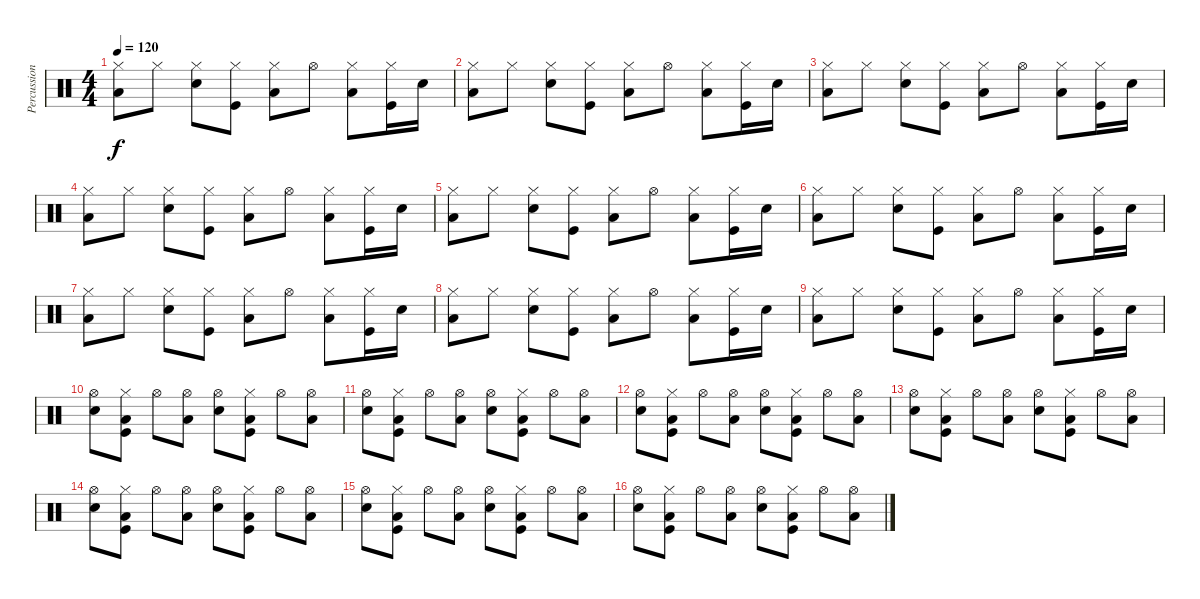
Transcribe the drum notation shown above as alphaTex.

\track ("Percussion" "Percussion") {instrument percussion}
\staff {score}
\articulation defaults
\ts (4 4)
\tempo 120
\clef neutral
\ks c
("Hi-Hat (closed)" "Low Tom (hit)").8{dy f} "Hi-Hat (closed)".8 ("Hi-Hat (closed)" "Snare (hit) 2").8 ("Hi-Hat (closed)" "Kick (hit)").8 ("Hi-Hat (closed)" "Low Tom (hit)").8 "Hi-Hat (open)".8 ("Hi-Hat (closed)" "Low Tom (hit)").8 ("Hi-Hat (closed)" "Kick (hit)").16 "Snare (hit) 2".16 |
("Hi-Hat (closed)" "Low Tom (hit)").8 "Hi-Hat (closed)".8 ("Hi-Hat (closed)" "Snare (hit) 2").8 ("Hi-Hat (closed)" "Kick (hit)").8 ("Hi-Hat (closed)" "Low Tom (hit)").8 "Hi-Hat (open)".8 ("Hi-Hat (closed)" "Low Tom (hit)").8 ("Hi-Hat (closed)" "Kick (hit)").16 "Snare (hit) 2".16 |
("Hi-Hat (closed)" "Low Tom (hit)").8 "Hi-Hat (closed)".8 ("Hi-Hat (closed)" "Snare (hit) 2").8 ("Hi-Hat (closed)" "Kick (hit)").8 ("Hi-Hat (closed)" "Low Tom (hit)").8 "Hi-Hat (open)".8 ("Hi-Hat (closed)" "Low Tom (hit)").8 ("Hi-Hat (closed)" "Kick (hit)").16 "Snare (hit) 2".16 |
("Hi-Hat (closed)" "Low Tom (hit)").8 "Hi-Hat (closed)".8 ("Hi-Hat (closed)" "Snare (hit) 2").8 ("Hi-Hat (closed)" "Kick (hit)").8 ("Hi-Hat (closed)" "Low Tom (hit)").8 "Hi-Hat (open)".8 ("Hi-Hat (closed)" "Low Tom (hit)").8 ("Hi-Hat (closed)" "Kick (hit)").16 "Snare (hit) 2".16 |
("Hi-Hat (closed)" "Low Tom (hit)").8 "Hi-Hat (closed)".8 ("Hi-Hat (closed)" "Snare (hit) 2").8 ("Hi-Hat (closed)" "Kick (hit)").8 ("Hi-Hat (closed)" "Low Tom (hit)").8 "Hi-Hat (open)".8 ("Hi-Hat (closed)" "Low Tom (hit)").8 ("Hi-Hat (closed)" "Kick (hit)").16 "Snare (hit) 2".16 |
("Hi-Hat (closed)" "Low Tom (hit)").8 "Hi-Hat (closed)".8 ("Hi-Hat (closed)" "Snare (hit) 2").8 ("Hi-Hat (closed)" "Kick (hit)").8 ("Hi-Hat (closed)" "Low Tom (hit)").8 "Hi-Hat (open)".8 ("Hi-Hat (closed)" "Low Tom (hit)").8 ("Hi-Hat (closed)" "Kick (hit)").16 "Snare (hit) 2".16 |
("Hi-Hat (closed)" "Low Tom (hit)").8 "Hi-Hat (closed)".8 ("Hi-Hat (closed)" "Snare (hit) 2").8 ("Hi-Hat (closed)" "Kick (hit)").8 ("Hi-Hat (closed)" "Low Tom (hit)").8 "Hi-Hat (open)".8 ("Hi-Hat (closed)" "Low Tom (hit)").8 ("Hi-Hat (closed)" "Kick (hit)").16 "Snare (hit) 2".16 |
("Hi-Hat (closed)" "Low Tom (hit)").8 "Hi-Hat (closed)".8 ("Hi-Hat (closed)" "Snare (hit) 2").8 ("Hi-Hat (closed)" "Kick (hit)").8 ("Hi-Hat (closed)" "Low Tom (hit)").8 "Hi-Hat (open)".8 ("Hi-Hat (closed)" "Low Tom (hit)").8 ("Hi-Hat (closed)" "Kick (hit)").16 "Snare (hit) 2".16 |
("Hi-Hat (closed)" "Low Tom (hit)").8 "Hi-Hat (closed)".8 ("Hi-Hat (closed)" "Snare (hit) 2").8 ("Hi-Hat (closed)" "Kick (hit)").8 ("Hi-Hat (closed)" "Low Tom (hit)").8 "Hi-Hat (open)".8 ("Hi-Hat (closed)" "Low Tom (hit)").8 ("Hi-Hat (closed)" "Kick (hit)").16 "Snare (hit) 2".16 |
("Hi-Hat (open)" "Snare (hit) 2").8 ("Hi-Hat (closed)" "Low Floor Tom (hit)" "Kick (hit)").8 "Hi-Hat (open)".8 ("Hi-Hat (open)" "Low Floor Tom (hit)").8 ("Hi-Hat (open)" "Snare (hit) 2").8 ("Hi-Hat (closed)" "Low Floor Tom (hit)" "Kick (hit)").8 "Hi-Hat (open)".8 ("Hi-Hat (open)" "Low Floor Tom (hit)").8 |
("Hi-Hat (open)" "Snare (hit) 2").8 ("Hi-Hat (closed)" "Low Floor Tom (hit)" "Kick (hit)").8 "Hi-Hat (open)".8 ("Hi-Hat (open)" "Low Floor Tom (hit)").8 ("Hi-Hat (open)" "Snare (hit) 2").8 ("Hi-Hat (closed)" "Low Floor Tom (hit)" "Kick (hit)").8 "Hi-Hat (open)".8 ("Hi-Hat (open)" "Low Floor Tom (hit)").8 |
("Hi-Hat (open)" "Snare (hit) 2").8 ("Hi-Hat (closed)" "Low Floor Tom (hit)" "Kick (hit)").8 "Hi-Hat (open)".8 ("Hi-Hat (open)" "Low Floor Tom (hit)").8 ("Hi-Hat (open)" "Snare (hit) 2").8 ("Hi-Hat (closed)" "Low Floor Tom (hit)" "Kick (hit)").8 "Hi-Hat (open)".8 ("Hi-Hat (open)" "Low Floor Tom (hit)").8 |
("Hi-Hat (open)" "Snare (hit) 2").8 ("Hi-Hat (closed)" "Low Floor Tom (hit)" "Kick (hit)").8 "Hi-Hat (open)".8 ("Hi-Hat (open)" "Low Floor Tom (hit)").8 ("Hi-Hat (open)" "Snare (hit) 2").8 ("Hi-Hat (closed)" "Low Floor Tom (hit)" "Kick (hit)").8 "Hi-Hat (open)".8 ("Hi-Hat (open)" "Low Floor Tom (hit)").8 |
("Hi-Hat (open)" "Snare (hit) 2").8 ("Hi-Hat (closed)" "Low Floor Tom (hit)" "Kick (hit)").8 "Hi-Hat (open)".8 ("Hi-Hat (open)" "Low Floor Tom (hit)").8 ("Hi-Hat (open)" "Snare (hit) 2").8 ("Hi-Hat (closed)" "Low Floor Tom (hit)" "Kick (hit)").8 "Hi-Hat (open)".8 ("Hi-Hat (open)" "Low Floor Tom (hit)").8 |
("Hi-Hat (open)" "Snare (hit) 2").8 ("Hi-Hat (closed)" "Low Floor Tom (hit)" "Kick (hit)").8 "Hi-Hat (open)".8 ("Hi-Hat (open)" "Low Floor Tom (hit)").8 ("Hi-Hat (open)" "Snare (hit) 2").8 ("Hi-Hat (closed)" "Low Floor Tom (hit)" "Kick (hit)").8 "Hi-Hat (open)".8 ("Hi-Hat (open)" "Low Floor Tom (hit)").8 |
("Hi-Hat (open)" "Snare (hit) 2").8 ("Hi-Hat (closed)" "Low Floor Tom (hit)" "Kick (hit)").8 "Hi-Hat (open)".8 ("Hi-Hat (open)" "Low Floor Tom (hit)").8 ("Hi-Hat (open)" "Snare (hit) 2").8 ("Hi-Hat (closed)" "Low Floor Tom (hit)" "Kick (hit)").8 "Hi-Hat (open)".8 ("Hi-Hat (open)" "Low Floor Tom (hit)").8
